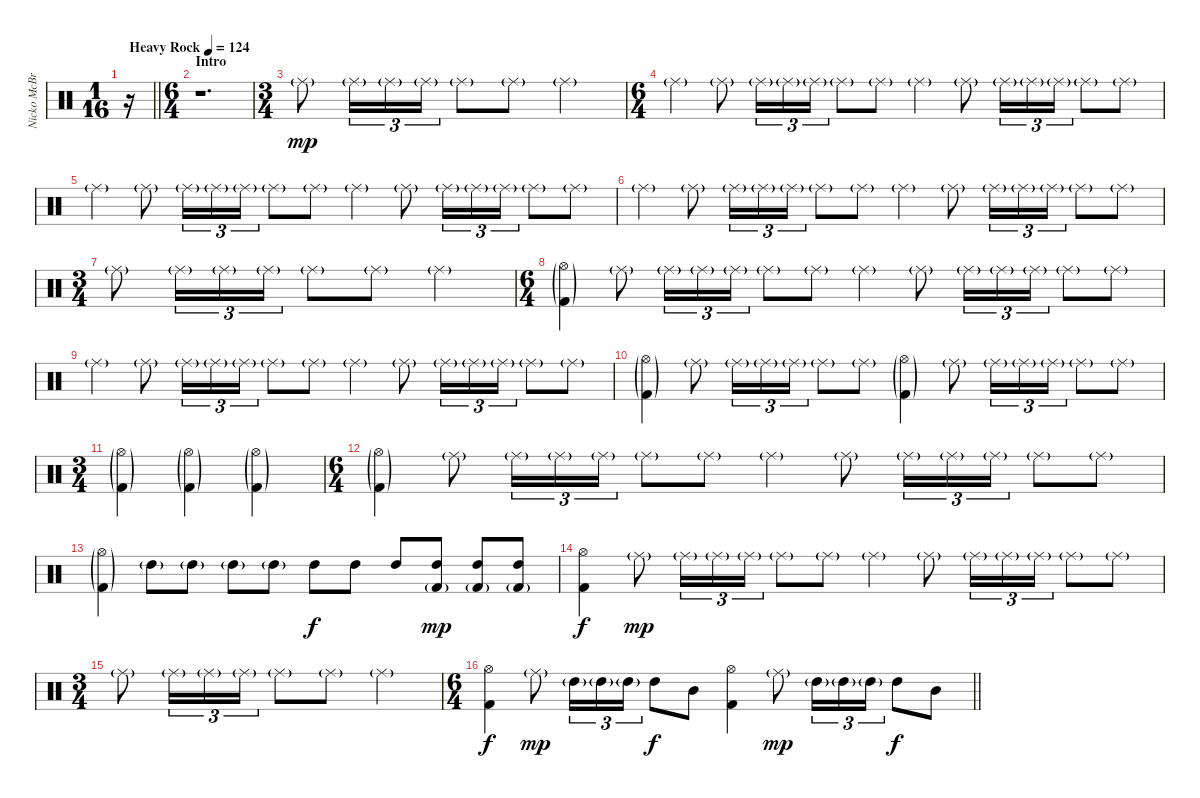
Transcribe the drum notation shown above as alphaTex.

\track ("Nicko McBrain" "Nicko McBr") {instrument percussion}
\staff {score}
\articulation defaults
\ts (1 16)
\tempo (124 "Heavy Rock")
\clef neutral
\barLineRight lightlight
\ks c
r.16{dy mp} |
\ts (6 4)
\section ("" "Intro")
r.1{d} |
\ts (3 4)
"Ride (middle)"{g}.8 "Ride (middle)"{g}.16{tu (3 2)} "Ride (middle)"{g}.16{tu (3 2)} "Ride (middle)"{g}.16{tu (3 2)} "Ride (middle)"{g}.8 "Ride (middle)"{g}.8 "Ride (middle)"{g}.4 |
\ts (6 4)
"Ride (middle)"{g}.4 "Ride (middle)"{g}.8 "Ride (middle)"{g}.16{tu (3 2)} "Ride (middle)"{g}.16{tu (3 2)} "Ride (middle)"{g}.16{tu (3 2)} "Ride (middle)"{g}.8 "Ride (middle)"{g}.8 "Ride (middle)"{g}.4 "Ride (middle)"{g}.8 "Ride (middle)"{g}.16{tu (3 2)} "Ride (middle)"{g}.16{tu (3 2)} "Ride (middle)"{g}.16{tu (3 2)} "Ride (middle)"{g}.8 "Ride (middle)"{g}.8 |
"Ride (middle)"{g}.4 "Ride (middle)"{g}.8 "Ride (middle)"{g}.16{tu (3 2)} "Ride (middle)"{g}.16{tu (3 2)} "Ride (middle)"{g}.16{tu (3 2)} "Ride (middle)"{g}.8 "Ride (middle)"{g}.8 "Ride (middle)"{g}.4 "Ride (middle)"{g}.8 "Ride (middle)"{g}.16{tu (3 2)} "Ride (middle)"{g}.16{tu (3 2)} "Ride (middle)"{g}.16{tu (3 2)} "Ride (middle)"{g}.8 "Ride (middle)"{g}.8 |
"Ride (middle)"{g}.4 "Ride (middle)"{g}.8 "Ride (middle)"{g}.16{tu (3 2)} "Ride (middle)"{g}.16{tu (3 2)} "Ride (middle)"{g}.16{tu (3 2)} "Ride (middle)"{g}.8 "Ride (middle)"{g}.8 "Ride (middle)"{g}.4 "Ride (middle)"{g}.8 "Ride (middle)"{g}.16{tu (3 2)} "Ride (middle)"{g}.16{tu (3 2)} "Ride (middle)"{g}.16{tu (3 2)} "Ride (middle)"{g}.8 "Ride (middle)"{g}.8 |
\ts (3 4)
"Ride (middle)"{g}.8 "Ride (middle)"{g}.16{tu (3 2)} "Ride (middle)"{g}.16{tu (3 2)} "Ride (middle)"{g}.16{tu (3 2)} "Ride (middle)"{g}.8 "Ride (middle)"{g}.8 "Ride (middle)"{g}.4 |
\ts (6 4)
("Kick (hit) 2"{g} "Hi-Hat (open)"{g}).4 "Ride (middle)"{g}.8 "Ride (middle)"{g}.16{tu (3 2)} "Ride (middle)"{g}.16{tu (3 2)} "Ride (middle)"{g}.16{tu (3 2)} "Ride (middle)"{g}.8 "Ride (middle)"{g}.8 "Ride (middle)"{g}.4 "Ride (middle)"{g}.8 "Ride (middle)"{g}.16{tu (3 2)} "Ride (middle)"{g}.16{tu (3 2)} "Ride (middle)"{g}.16{tu (3 2)} "Ride (middle)"{g}.8 "Ride (middle)"{g}.8 |
"Ride (middle)"{g}.4 "Ride (middle)"{g}.8 "Ride (middle)"{g}.16{tu (3 2)} "Ride (middle)"{g}.16{tu (3 2)} "Ride (middle)"{g}.16{tu (3 2)} "Ride (middle)"{g}.8 "Ride (middle)"{g}.8 "Ride (middle)"{g}.4 "Ride (middle)"{g}.8 "Ride (middle)"{g}.16{tu (3 2)} "Ride (middle)"{g}.16{tu (3 2)} "Ride (middle)"{g}.16{tu (3 2)} "Ride (middle)"{g}.8 "Ride (middle)"{g}.8 |
("Kick (hit) 2"{g} "Hi-Hat (open)"{g}).4 "Ride (middle)"{g}.8 "Ride (middle)"{g}.16{tu (3 2)} "Ride (middle)"{g}.16{tu (3 2)} "Ride (middle)"{g}.16{tu (3 2)} "Ride (middle)"{g}.8 "Ride (middle)"{g}.8 ("Kick (hit) 2"{g} "Hi-Hat (open)"{g}).4 "Ride (middle)"{g}.8 "Ride (middle)"{g}.16{tu (3 2)} "Ride (middle)"{g}.16{tu (3 2)} "Ride (middle)"{g}.16{tu (3 2)} "Ride (middle)"{g}.8 "Ride (middle)"{g}.8 |
\ts (3 4)
("Kick (hit) 2"{g} "Hi-Hat (open)"{g}).4 ("Kick (hit) 2"{g} "Hi-Hat (open)"{g}).4 ("Kick (hit) 2"{g} "Hi-Hat (open)"{g}).4 |
\ts (6 4)
("Kick (hit) 2"{g} "Hi-Hat (open)"{g}).4 "Ride (middle)"{g}.8 "Ride (middle)"{g}.16{tu (3 2)} "Ride (middle)"{g}.16{tu (3 2)} "Ride (middle)"{g}.16{tu (3 2)} "Ride (middle)"{g}.8 "Ride (middle)"{g}.8 "Ride (middle)"{g}.4 "Ride (middle)"{g}.8 "Ride (middle)"{g}.16{tu (3 2)} "Ride (middle)"{g}.16{tu (3 2)} "Ride (middle)"{g}.16{tu (3 2)} "Ride (middle)"{g}.8 "Ride (middle)"{g}.8 |
("Kick (hit) 2"{g} "Hi-Hat (open)"{g}).4 "High Tom (hit)"{g}.8 "High Tom (hit)"{g}.8 "High Tom (hit)"{g}.8 "High Tom (hit)"{g}.8 "High Tom (hit)".8{dy f} "High Tom (hit)".8 "High Tom (hit)".8 ("High Tom (hit)" "Kick (hit) 2"{g}).8{dy mp} ("High Tom (hit)" "Kick (hit) 2"{g}).8 ("High Tom (hit)" "Kick (hit) 2"{g}).8 |
("Kick (hit) 2" "Hi-Hat (open)").4{dy f} "Ride (middle)"{g}.8{dy mp} "Ride (middle)"{g}.16{tu (3 2)} "Ride (middle)"{g}.16{tu (3 2)} "Ride (middle)"{g}.16{tu (3 2)} "Ride (middle)"{g}.8 "Ride (middle)"{g}.8 "Ride (middle)"{g}.4 "Ride (middle)"{g}.8 "Ride (middle)"{g}.16{tu (3 2)} "Ride (middle)"{g}.16{tu (3 2)} "Ride (middle)"{g}.16{tu (3 2)} "Ride (middle)"{g}.8 "Ride (middle)"{g}.8 |
\ts (3 4)
"Ride (middle)"{g}.8 "Ride (middle)"{g}.16{tu (3 2)} "Ride (middle)"{g}.16{tu (3 2)} "Ride (middle)"{g}.16{tu (3 2)} "Ride (middle)"{g}.8 "Ride (middle)"{g}.8 "Ride (middle)"{g}.4 |
\ts (6 4)
\barLineRight lightlight
("Kick (hit) 2" "Hi-Hat (open)").4{dy f} "Ride (middle)"{g}.8{dy mp} "High Tom (hit)"{g}.16{tu (3 2)} "High Tom (hit)"{g}.16{tu (3 2)} "High Tom (hit)"{g}.16{tu (3 2)} "High Tom (hit)".8{dy f} "Mid Tom (hit)".8 ("Kick (hit) 2" "Hi-Hat (open)").4 "Ride (middle)"{g}.8{dy mp} "High Tom (hit)"{g}.16{tu (3 2)} "High Tom (hit)"{g}.16{tu (3 2)} "High Tom (hit)"{g}.16{tu (3 2)} "High Tom (hit)".8{dy f} "Mid Tom (hit)".8
